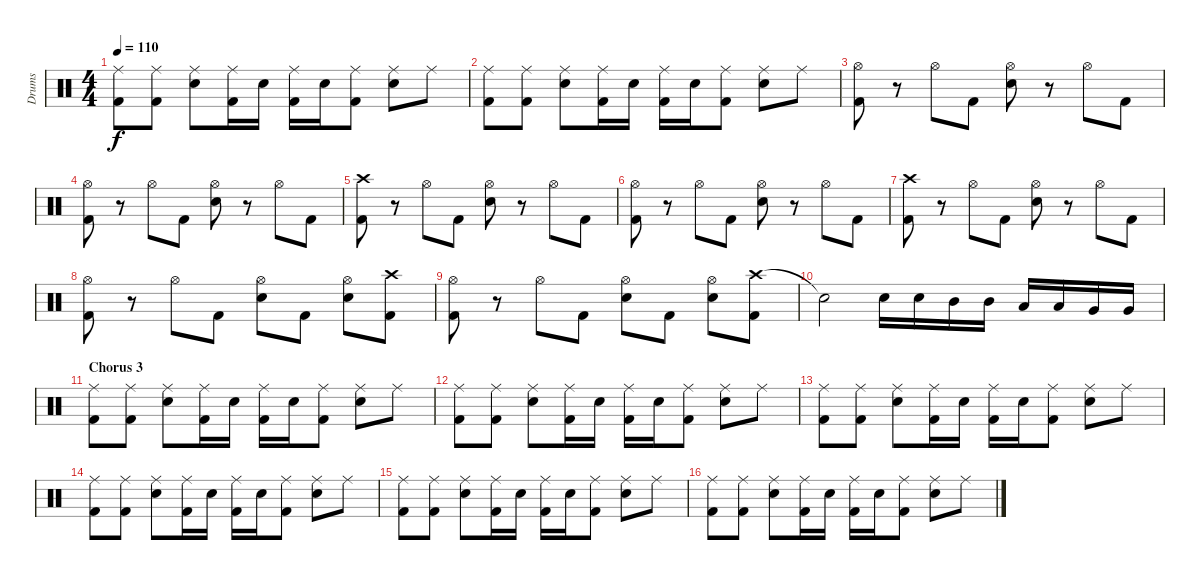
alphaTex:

\track ("Drums" "Drums") {instrument percussion}
\staff {score}
\articulation defaults
\ts (4 4)
\tempo 110
\clef neutral
\ks c
("Ride (middle)" "Kick (hit) 2").8{dy f} ("Ride (middle)" "Kick (hit) 2").8 ("Ride (middle)" "Electric Snare (hit)").8 ("Ride (middle)" "Kick (hit) 2").16 "Electric Snare (hit)".16 ("Ride (middle)" "Kick (hit) 2").16 "Electric Snare (hit)".16 ("Ride (middle)" "Kick (hit) 2").8 ("Ride (middle)" "Electric Snare (hit)").8 "Ride (middle)".8 |
("Ride (middle)" "Kick (hit) 2").8 ("Ride (middle)" "Kick (hit) 2").8 ("Ride (middle)" "Electric Snare (hit)").8 ("Ride (middle)" "Kick (hit) 2").16 "Electric Snare (hit)".16 ("Ride (middle)" "Kick (hit) 2").16 "Electric Snare (hit)".16 ("Ride (middle)" "Kick (hit) 2").8 ("Ride (middle)" "Electric Snare (hit)").8 "Ride (middle)".8 |
("Hi-Hat (open)" "Kick (hit) 2").8 r.8 "Hi-Hat (open)".8 "Kick (hit) 2".8 ("Hi-Hat (open)" "Electric Snare (hit)").8 r.8 "Hi-Hat (open)".8 "Kick (hit) 2".8 |
("Hi-Hat (open)" "Kick (hit) 2").8 r.8 "Hi-Hat (open)".8 "Kick (hit) 2".8 ("Hi-Hat (open)" "Electric Snare (hit)").8 r.8 "Hi-Hat (open)".8 "Kick (hit) 2".8 |
("Crash high (hit)" "Kick (hit) 2").8 r.8 "Hi-Hat (open)".8 "Kick (hit) 2".8 ("Hi-Hat (open)" "Electric Snare (hit)").8 r.8 "Hi-Hat (open)".8 "Kick (hit) 2".8 |
("Hi-Hat (open)" "Kick (hit) 2").8 r.8 "Hi-Hat (open)".8 "Kick (hit) 2".8 ("Hi-Hat (open)" "Electric Snare (hit)").8 r.8 "Hi-Hat (open)".8 "Kick (hit) 2".8 |
("Crash high (hit)" "Kick (hit) 2").8 r.8 "Hi-Hat (open)".8 "Kick (hit) 2".8 ("Hi-Hat (open)" "Electric Snare (hit)").8 r.8 "Hi-Hat (open)".8 "Kick (hit) 2".8 |
("Hi-Hat (open)" "Kick (hit) 2").8 r.8 "Hi-Hat (open)".8 "Kick (hit) 2".8 ("Hi-Hat (open)" "Electric Snare (hit)").8 "Kick (hit) 2".8 ("Hi-Hat (open)" "Electric Snare (hit)").8 ("Crash high (hit)" "Kick (hit) 2").8 |
("Hi-Hat (open)" "Kick (hit) 2").8 r.8 "Hi-Hat (open)".8 "Kick (hit) 2".8 ("Hi-Hat (open)" "Electric Snare (hit)").8 "Kick (hit) 2".8 ("Hi-Hat (open)" "Electric Snare (hit)").8 ("Crash high (hit)" "Kick (hit) 2").8 |
"Snare (hit)"{t}.2 "Electric Snare (hit)".16 "Electric Snare (hit)".16 "Mid Tom (hit)".16 "Mid Tom (hit)".16 "Low Tom (hit)".16 "Low Tom (hit)".16 "Very Low Tom (hit)".16 "Very Low Tom (hit)".16 |
\section ("" "Chorus 3")
("Ride (middle)" "Kick (hit) 2").8 ("Ride (middle)" "Kick (hit) 2").8 ("Ride (middle)" "Electric Snare (hit)").8 ("Ride (middle)" "Kick (hit) 2").16 "Electric Snare (hit)".16 ("Ride (middle)" "Kick (hit) 2").16 "Electric Snare (hit)".16 ("Ride (middle)" "Kick (hit) 2").8 ("Ride (middle)" "Electric Snare (hit)").8 "Ride (middle)".8 |
("Ride (middle)" "Kick (hit) 2").8 ("Ride (middle)" "Kick (hit) 2").8 ("Ride (middle)" "Electric Snare (hit)").8 ("Ride (middle)" "Kick (hit) 2").16 "Electric Snare (hit)".16 ("Ride (middle)" "Kick (hit) 2").16 "Electric Snare (hit)".16 ("Ride (middle)" "Kick (hit) 2").8 ("Ride (middle)" "Electric Snare (hit)").8 "Ride (middle)".8 |
("Ride (middle)" "Kick (hit) 2").8 ("Ride (middle)" "Kick (hit) 2").8 ("Ride (middle)" "Electric Snare (hit)").8 ("Ride (middle)" "Kick (hit) 2").16 "Electric Snare (hit)".16 ("Ride (middle)" "Kick (hit) 2").16 "Electric Snare (hit)".16 ("Ride (middle)" "Kick (hit) 2").8 ("Ride (middle)" "Electric Snare (hit)").8 "Ride (middle)".8 |
("Ride (middle)" "Kick (hit) 2").8 ("Ride (middle)" "Kick (hit) 2").8 ("Ride (middle)" "Electric Snare (hit)").8 ("Ride (middle)" "Kick (hit) 2").16 "Electric Snare (hit)".16 ("Ride (middle)" "Kick (hit) 2").16 "Electric Snare (hit)".16 ("Ride (middle)" "Kick (hit) 2").8 ("Ride (middle)" "Electric Snare (hit)").8 "Ride (middle)".8 |
("Ride (middle)" "Kick (hit) 2").8 ("Ride (middle)" "Kick (hit) 2").8 ("Ride (middle)" "Electric Snare (hit)").8 ("Ride (middle)" "Kick (hit) 2").16 "Electric Snare (hit)".16 ("Ride (middle)" "Kick (hit) 2").16 "Electric Snare (hit)".16 ("Ride (middle)" "Kick (hit) 2").8 ("Ride (middle)" "Electric Snare (hit)").8 "Ride (middle)".8 |
("Ride (middle)" "Kick (hit) 2").8 ("Ride (middle)" "Kick (hit) 2").8 ("Ride (middle)" "Electric Snare (hit)").8 ("Ride (middle)" "Kick (hit) 2").16 "Electric Snare (hit)".16 ("Ride (middle)" "Kick (hit) 2").16 "Electric Snare (hit)".16 ("Ride (middle)" "Kick (hit) 2").8 ("Ride (middle)" "Electric Snare (hit)").8 "Ride (middle)".8
